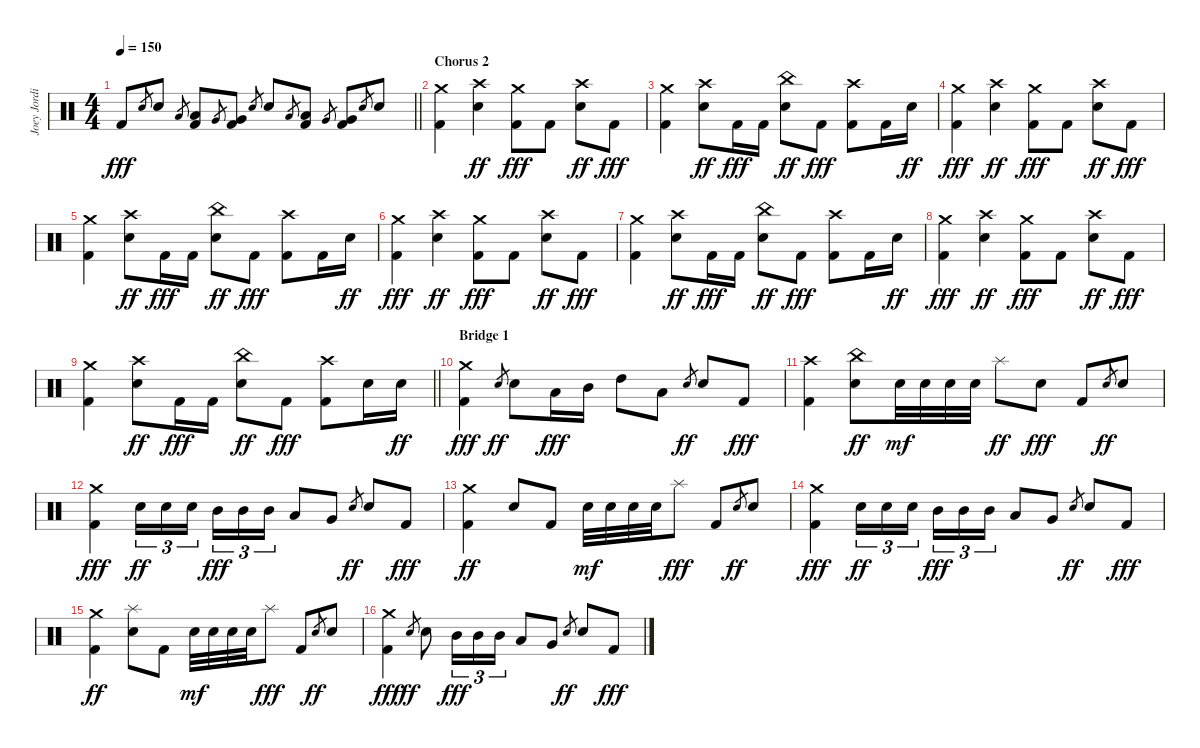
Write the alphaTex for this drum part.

\track ("Joey Jordison" "Joey Jordi") {instrument percussion}
\staff {score}
\articulation defaults
\ts (4 4)
\tempo 150
\clef neutral
\barLineRight lightlight
\ks c "Kick (hit) 2".8{dy fff} "Electric Snare (hit)".8{gr} "Electric Snare (hit)".8 "Low Tom (hit)".8{gr}
("Low Tom (hit)" "Kick (hit) 2").8 "Very Low Tom (hit)".8{gr} ("Very Low Tom (hit)" "Kick (hit) 2").8 "Electric Snare (hit)".8{gr} "Electric Snare (hit)".8 "Low Tom (hit)".8{gr} ("Low Tom (hit)" "Kick (hit) 2").8 "Very Low Tom (hit)".8{gr} ("Very Low Tom (hit)" "Kick (hit) 2").8 "Electric Snare (hit)".8{gr} "Electric Snare (hit)".8 |
\section ("" "Chorus 2")
("Crash medium (hit)" "Kick (hit) 2").4 ("Crash high (hit)" "Electric Snare (hit)").4{dy ff} ("Crash medium (hit)" "Kick (hit) 2").8{dy fff} "Kick (hit) 2".8 ("Crash high (hit)" "Electric Snare (hit)").8{dy ff} "Kick (hit) 2".8{dy fff} |
("Crash medium (hit)" "Kick (hit) 2").4 ("Crash high (hit)" "Electric Snare (hit)").8{dy ff} "Kick (hit) 2".16{dy fff} "Kick (hit) 2".16 ("China (hit)" "Electric Snare (hit)").8{dy ff} "Kick (hit) 2".8{dy fff} ("Crash high (hit)" "Kick (hit) 2").8 "Kick (hit) 2".16 "Electric Snare (hit)".16{dy ff} |
("Crash medium (hit)" "Kick (hit) 2").4{dy fff} ("Crash high (hit)" "Electric Snare (hit)").4{dy ff} ("Crash medium (hit)" "Kick (hit) 2").8{dy fff} "Kick (hit) 2".8 ("Crash high (hit)" "Electric Snare (hit)").8{dy ff} "Kick (hit) 2".8{dy fff} |
("Crash medium (hit)" "Kick (hit) 2").4 ("Crash high (hit)" "Electric Snare (hit)").8{dy ff} "Kick (hit) 2".16{dy fff} "Kick (hit) 2".16 ("China (hit)" "Electric Snare (hit)").8{dy ff} "Kick (hit) 2".8{dy fff} ("Crash high (hit)" "Kick (hit) 2").8 "Kick (hit) 2".16 "Electric Snare (hit)".16{dy ff} |
("Crash medium (hit)" "Kick (hit) 2").4{dy fff} ("Crash high (hit)" "Electric Snare (hit)").4{dy ff} ("Crash medium (hit)" "Kick (hit) 2").8{dy fff} "Kick (hit) 2".8 ("Crash high (hit)" "Electric Snare (hit)").8{dy ff} "Kick (hit) 2".8{dy fff} |
("Crash medium (hit)" "Kick (hit) 2").4 ("Crash high (hit)" "Electric Snare (hit)").8{dy ff} "Kick (hit) 2".16{dy fff} "Kick (hit) 2".16 ("China (hit)" "Electric Snare (hit)").8{dy ff} "Kick (hit) 2".8{dy fff} ("Crash high (hit)" "Kick (hit) 2").8 "Kick (hit) 2".16 "Electric Snare (hit)".16{dy ff} |
("Crash medium (hit)" "Kick (hit) 2").4{dy fff} ("Crash high (hit)" "Electric Snare (hit)").4{dy ff} ("Crash medium (hit)" "Kick (hit) 2").8{dy fff} "Kick (hit) 2".8 ("Crash high (hit)" "Electric Snare (hit)").8{dy ff} "Kick (hit) 2".8{dy fff} |
\barLineRight lightlight
("Crash medium (hit)" "Kick (hit) 2").4 ("Crash high (hit)" "Electric Snare (hit)").8{dy ff} "Kick (hit) 2".16{dy fff} "Kick (hit) 2".16 ("China (hit)" "Electric Snare (hit)").8{dy ff} "Kick (hit) 2".8{dy fff} ("Crash high (hit)" "Kick (hit) 2").8 "Electric Snare (hit)".16 "Electric Snare (hit)".16{dy ff} |
\section ("" "Bridge 1")
("Crash medium (hit)" "Kick (hit) 2").4{dy fff} "Electric Snare (hit)".8{gr dy ff} "Electric Snare (hit)".8 "Low Tom (hit)".16{dy fff} "Mid Tom (hit)".16 "High Tom (hit)".8 "Low Tom (hit)".8 "Electric Snare (hit)".8{gr dy ff} "Electric Snare (hit)".8 "Kick (hit) 2".8{dy fff} |
("Crash high (hit)" "Kick (hit) 2").4 ("China (hit)" "Electric Snare (hit)").8{dy ff} "Electric Snare (hit)".32{dy mf} "Electric Snare (hit)".32 "Electric Snare (hit)".32 "Electric Snare (hit)".32 "Splash (hit)".8{dy ff} "Electric Snare (hit)".8{dy fff} "Kick (hit) 2".8 "Electric Snare (hit)".8{gr dy ff} "Electric Snare (hit)".8 |
("Crash medium (hit)" "Kick (hit) 2").4{dy fff} "Electric Snare (hit)".16{tu (3 2) dy ff} "Electric Snare (hit)".16{tu (3 2)} "Electric Snare (hit)".16{tu (3 2) beam splitsecondary} "Mid Tom (hit)".16{tu (3 2) dy fff} "Mid Tom (hit)".16{tu (3 2)} "Mid Tom (hit)".16{tu (3 2)} "Low Tom (hit)".8 "Very Low Tom (hit)".8 "Electric Snare (hit)".8{gr dy ff} "Electric Snare (hit)".8 "Kick (hit) 2".8{dy fff} |
("Crash medium (hit)" "Kick (hit) 2").4{dy ff} "Electric Snare (hit)".8 "Kick (hit) 2".8 "Electric Snare (hit)".32{dy mf} "Electric Snare (hit)".32 "Electric Snare (hit)".32 "Electric Snare (hit)".32 "Splash (hit)".8{dy fff} "Kick (hit) 2".8 "Electric Snare (hit)".8{gr dy ff} "Electric Snare (hit)".8 |
("Crash medium (hit)" "Kick (hit) 2").4{dy fff} "Electric Snare (hit)".16{tu (3 2) dy ff} "Electric Snare (hit)".16{tu (3 2)} "Electric Snare (hit)".16{tu (3 2) beam splitsecondary} "Mid Tom (hit)".16{tu (3 2) dy fff} "Mid Tom (hit)".16{tu (3 2)} "Mid Tom (hit)".16{tu (3 2)} "Low Tom (hit)".8 "Very Low Tom (hit)".8 "Electric Snare (hit)".8{gr dy ff} "Electric Snare (hit)".8 "Kick (hit) 2".8{dy fff} |
("Crash medium (hit)" "Kick (hit) 2").4{dy ff} ("Splash (hit)" "Electric Snare (hit)").8 "Kick (hit) 2".8 "Electric Snare (hit)".32{dy mf} "Electric Snare (hit)".32 "Electric Snare (hit)".32 "Electric Snare (hit)".32 "Splash (hit)".8{dy fff} "Kick (hit) 2".8 "Electric Snare (hit)".8{gr dy ff} "Electric Snare (hit)".8 |
("Crash medium (hit)" "Kick (hit) 2").4{dy fff} "Electric Snare (hit)".8{gr dy ff} "Electric Snare (hit)".8 "Mid Tom (hit)".16{tu (3 2) dy fff} "Mid Tom (hit)".16{tu (3 2)} "Mid Tom (hit)".16{tu (3 2)} "Low Tom (hit)".8 "Very Low Tom (hit)".8 "Electric Snare (hit)".8{gr dy ff} "Electric Snare (hit)".8 "Kick (hit) 2".8{dy fff}
